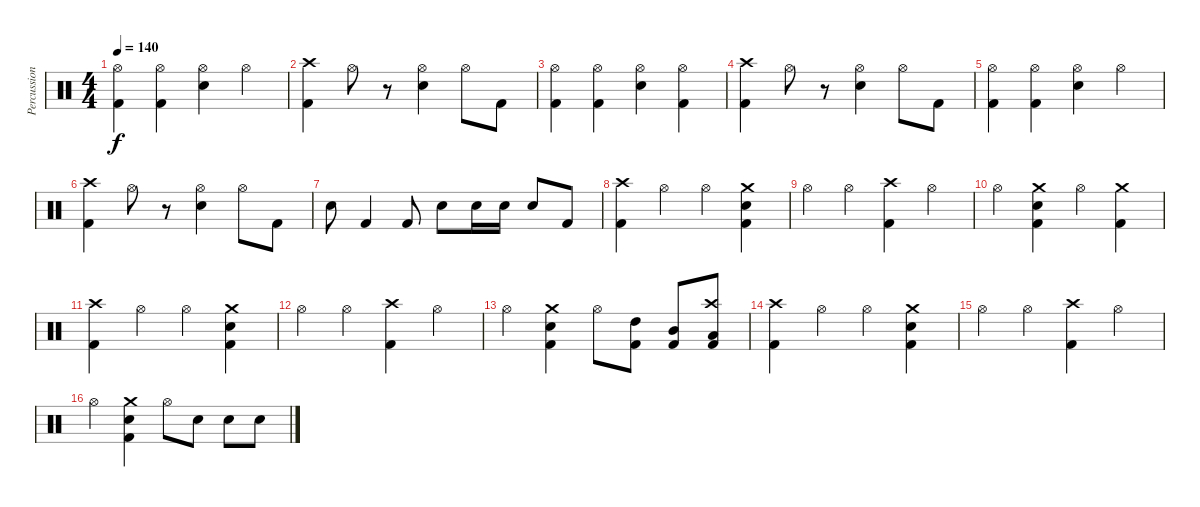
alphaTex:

\track ("Percussion" "Percussion") {instrument percussion}
\staff {score}
\articulation defaults
\ts (4 4)
\tempo 140
\clef neutral
\ks c
("Hi-Hat (open)" "Kick (hit) 2").4{dy f} ("Hi-Hat (open)" "Kick (hit) 2").4 ("Hi-Hat (open)" "Snare (hit) 2").4 "Hi-Hat (open)".4 |
("Crash high (hit)" "Kick (hit) 2").4 "Hi-Hat (open)".8 r.8 ("Hi-Hat (open)" "Snare (hit) 2").4 "Hi-Hat (open)".8 "Kick (hit) 2".8 |
("Hi-Hat (open)" "Kick (hit) 2").4 ("Hi-Hat (open)" "Kick (hit) 2").4 ("Hi-Hat (open)" "Snare (hit) 2").4 ("Hi-Hat (open)" "Kick (hit) 2").4 |
("Crash high (hit)" "Kick (hit) 2").4 "Hi-Hat (open)".8 r.8 ("Hi-Hat (open)" "Snare (hit) 2").4 "Hi-Hat (open)".8 "Kick (hit) 2".8 |
("Hi-Hat (open)" "Kick (hit) 2").4 ("Hi-Hat (open)" "Kick (hit) 2").4 ("Hi-Hat (open)" "Snare (hit) 2").4 "Hi-Hat (open)".4 |
("Crash high (hit)" "Kick (hit) 2").4 "Hi-Hat (open)".8 r.8 ("Hi-Hat (open)" "Snare (hit) 2").4 "Hi-Hat (open)".8 "Kick (hit) 2".8 |
"Snare (hit) 2".8 "Kick (hit) 2".4 "Kick (hit) 2".8 "Snare (hit) 2".8 "Snare (hit) 2".16 "Snare (hit) 2".16 "Snare (hit) 2".8 "Kick (hit) 2".8 |
("Crash high (hit)" "Kick (hit) 2").4 "Hi-Hat (open)".4 "Hi-Hat (open)".4 ("Crash medium (hit)" "Snare (hit) 2" "Kick (hit) 2").4 |
"Hi-Hat (open)".4 "Hi-Hat (open)".4 ("Crash high (hit)" "Kick (hit) 2").4 "Hi-Hat (open)".4 |
"Hi-Hat (open)".4 ("Crash medium (hit)" "Snare (hit) 2" "Kick (hit) 2").4 "Hi-Hat (open)".4 ("Crash medium (hit)" "Kick (hit) 2").4 |
("Crash high (hit)" "Kick (hit) 2").4 "Hi-Hat (open)".4 "Hi-Hat (open)".4 ("Crash medium (hit)" "Snare (hit) 2" "Kick (hit) 2").4 |
"Hi-Hat (open)".4 "Hi-Hat (open)".4 ("Crash high (hit)" "Kick (hit) 2").4 "Hi-Hat (open)".4 |
"Hi-Hat (open)".4 ("Crash medium (hit)" "Snare (hit) 2" "Kick (hit) 2").4 "Hi-Hat (open)".8 ("High Tom (hit)" "Kick (hit) 2").8 ("Mid Tom (hit)" "Kick (hit) 2").8 ("Crash high (hit)" "Low Tom (hit)" "Kick (hit) 2").8 |
("Crash high (hit)" "Kick (hit) 2").4 "Hi-Hat (open)".4 "Hi-Hat (open)".4 ("Crash medium (hit)" "Snare (hit) 2" "Kick (hit) 2").4 |
"Hi-Hat (open)".4 "Hi-Hat (open)".4 ("Crash high (hit)" "Kick (hit) 2").4 "Hi-Hat (open)".4 |
"Hi-Hat (open)".4 ("Crash medium (hit)" "Snare (hit) 2" "Kick (hit) 2").4 "Hi-Hat (open)".8 "Snare (hit) 2".8 "Snare (hit) 2".8 "Snare (hit) 2".8
